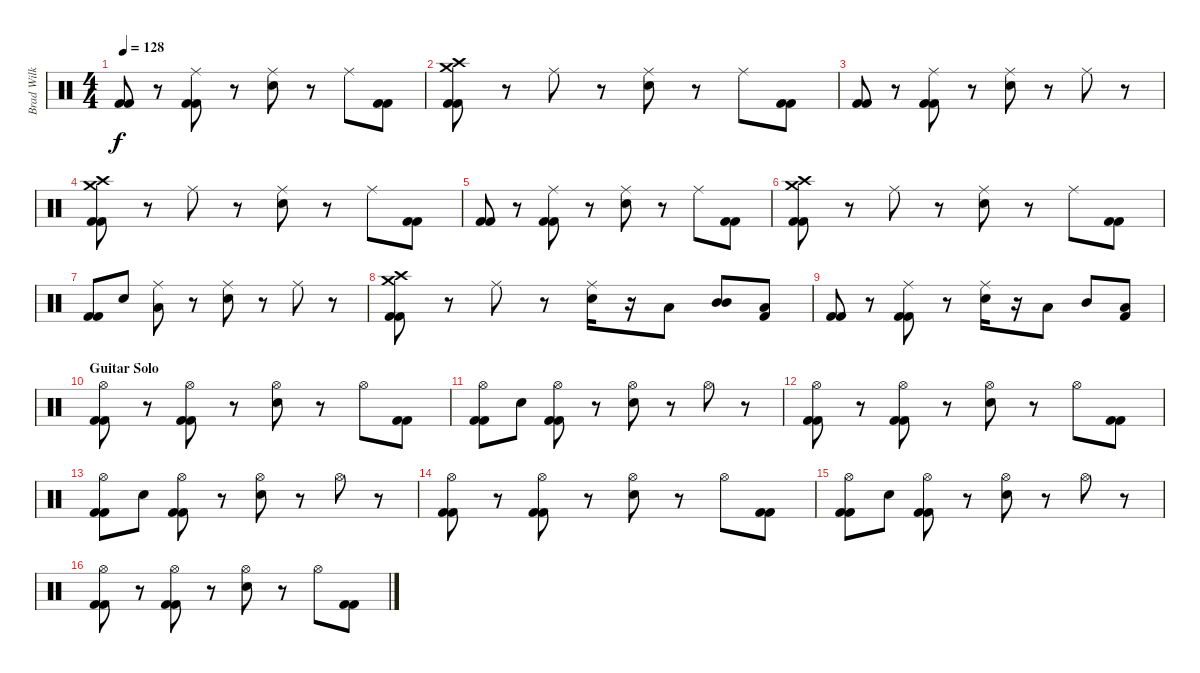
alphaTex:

\track ("Brad Wilk" "Brad Wilk") {instrument percussion}
\staff {score}
\articulation defaults
\ts (4 4)
\tempo 128
\clef neutral
\ks c
("Kick (hit) 2" "Kick (hit) 2").8{dy f} r.8 ("Ride (middle)" "Kick (hit) 2" "Kick (hit) 2").8 r.8 ("Ride (middle)" "Electric Snare (hit)").8 r.8 "Ride (middle)".8 ("Kick (hit) 2" "Kick (hit) 2").8 |
("Crash medium (hit)" "Crash high (hit)" "Kick (hit) 2" "Kick (hit) 2").8 r.8 "Ride (middle)".8 r.8 ("Ride (middle)" "Electric Snare (hit)").8 r.8 "Ride (middle)".8 ("Kick (hit) 2" "Kick (hit) 2").8 |
("Kick (hit) 2" "Kick (hit) 2").8 r.8 ("Ride (middle)" "Kick (hit) 2" "Kick (hit) 2").8 r.8 ("Ride (middle)" "Electric Snare (hit)").8 r.8 "Ride (middle)".8 r.8 |
("Crash medium (hit)" "Crash high (hit)" "Kick (hit) 2" "Kick (hit) 2").8 r.8 "Ride (middle)".8 r.8 ("Ride (middle)" "Electric Snare (hit)").8 r.8 "Ride (middle)".8 ("Kick (hit) 2" "Kick (hit) 2").8 |
("Kick (hit) 2" "Kick (hit) 2").8 r.8 ("Ride (middle)" "Kick (hit) 2" "Kick (hit) 2").8 r.8 ("Ride (middle)" "Electric Snare (hit)").8 r.8 "Ride (middle)".8 ("Kick (hit) 2" "Kick (hit) 2").8 |
("Crash medium (hit)" "Crash high (hit)" "Kick (hit) 2" "Kick (hit) 2").8 r.8 "Ride (middle)".8 r.8 ("Ride (middle)" "Electric Snare (hit)").8 r.8 "Ride (middle)".8 ("Kick (hit) 2" "Kick (hit) 2").8 |
("Kick (hit) 2" "Kick (hit) 2").8 "Electric Snare (hit)".8 ("Ride (middle)" "Low Tom (hit)").8 r.8 ("Ride (middle)" "Electric Snare (hit)").8 r.8 "Ride (middle)".8 r.8 |
("Crash medium (hit)" "Crash high (hit)" "Kick (hit) 2" "Kick (hit) 2").8 r.8 "Ride (middle)".8 r.8 ("Ride (middle)" "Electric Snare (hit)").16 r.16 "Low Tom (hit)".8 ("Mid Tom (hit)" "Mid Tom (hit)").8{bd 240} ("Low Tom (hit)" "Kick (hit) 2").8 |
("Kick (hit) 2" "Kick (hit) 2").8 r.8 ("Ride (middle)" "Kick (hit) 2" "Kick (hit) 2").8 r.8 ("Ride (middle)" "Electric Snare (hit)").16 r.16 "Low Tom (hit)".8 "Mid Tom (hit)".8 ("Low Tom (hit)" "Kick (hit) 2").8 |
\section ("" "Guitar Solo")
("Hi-Hat (open)" "Kick (hit) 2" "Kick (hit) 2").8 r.8 ("Hi-Hat (open)" "Kick (hit) 2" "Kick (hit) 2").8 r.8 ("Hi-Hat (open)" "Electric Snare (hit)").8 r.8 "Hi-Hat (open)".8 ("Kick (hit) 2" "Kick (hit) 2").8 |
("Hi-Hat (open)" "Kick (hit) 2" "Kick (hit) 2").8 "Electric Snare (hit)".8 ("Hi-Hat (open)" "Kick (hit) 2" "Kick (hit) 2").8 r.8 ("Hi-Hat (open)" "Electric Snare (hit)").8 r.8 "Hi-Hat (open)".8 r.8 |
("Hi-Hat (open)" "Kick (hit) 2" "Kick (hit) 2").8 r.8 ("Hi-Hat (open)" "Kick (hit) 2" "Kick (hit) 2").8 r.8 ("Hi-Hat (open)" "Electric Snare (hit)").8 r.8 "Hi-Hat (open)".8 ("Kick (hit) 2" "Kick (hit) 2").8 |
("Hi-Hat (open)" "Kick (hit) 2" "Kick (hit) 2").8 "Electric Snare (hit)".8 ("Hi-Hat (open)" "Kick (hit) 2" "Kick (hit) 2").8 r.8 ("Hi-Hat (open)" "Electric Snare (hit)").8 r.8 "Hi-Hat (open)".8 r.8 |
("Hi-Hat (open)" "Kick (hit) 2" "Kick (hit) 2").8 r.8 ("Hi-Hat (open)" "Kick (hit) 2" "Kick (hit) 2").8 r.8 ("Hi-Hat (open)" "Electric Snare (hit)").8 r.8 "Hi-Hat (open)".8 ("Kick (hit) 2" "Kick (hit) 2").8 |
("Hi-Hat (open)" "Kick (hit) 2" "Kick (hit) 2").8 "Electric Snare (hit)".8 ("Hi-Hat (open)" "Kick (hit) 2" "Kick (hit) 2").8 r.8 ("Hi-Hat (open)" "Electric Snare (hit)").8 r.8 "Hi-Hat (open)".8 r.8 |
("Hi-Hat (open)" "Kick (hit) 2" "Kick (hit) 2").8 r.8 ("Hi-Hat (open)" "Kick (hit) 2" "Kick (hit) 2").8 r.8 ("Hi-Hat (open)" "Electric Snare (hit)").8 r.8 "Hi-Hat (open)".8 ("Kick (hit) 2" "Kick (hit) 2").8
